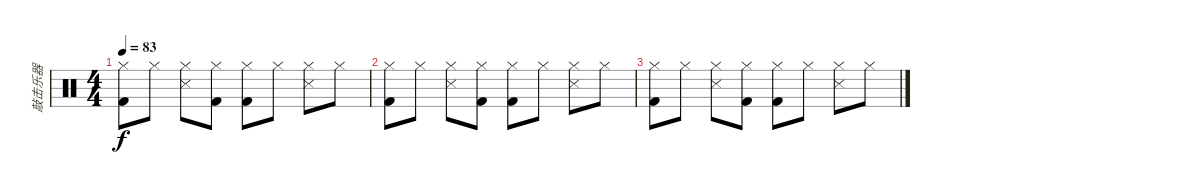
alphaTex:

\track ("敲击乐器" "敲击乐器") {instrument percussion}
\staff {score}
\articulation defaults
\ts (4 4)
\tempo 83
\clef neutral
\ks c
("Kick (hit) 2" "Hi-Hat (closed)").8{dy f} "Hi-Hat (closed)".8 ("Snare (side stick) 3" "Hi-Hat (closed)").8 ("Kick (hit) 2" "Hi-Hat (closed)").8 ("Kick (hit) 2" "Hi-Hat (closed)").8 "Hi-Hat (closed)".8 ("Snare (side stick) 3" "Hi-Hat (closed)").8 "Hi-Hat (closed)".8 |
("Kick (hit) 2" "Hi-Hat (closed)").8 "Hi-Hat (closed)".8 ("Snare (side stick) 3" "Hi-Hat (closed)").8 ("Kick (hit) 2" "Hi-Hat (closed)").8 ("Kick (hit) 2" "Hi-Hat (closed)").8 "Hi-Hat (closed)".8 ("Snare (side stick) 3" "Hi-Hat (closed)").8 "Hi-Hat (closed)".8 |
("Kick (hit) 2" "Hi-Hat (closed)").8 "Hi-Hat (closed)".8 ("Snare (side stick) 3" "Hi-Hat (closed)").8 ("Kick (hit) 2" "Hi-Hat (closed)").8 ("Kick (hit) 2" "Hi-Hat (closed)").8 "Hi-Hat (closed)".8 ("Snare (side stick) 3" "Hi-Hat (closed)").8 "Hi-Hat (closed)".8
